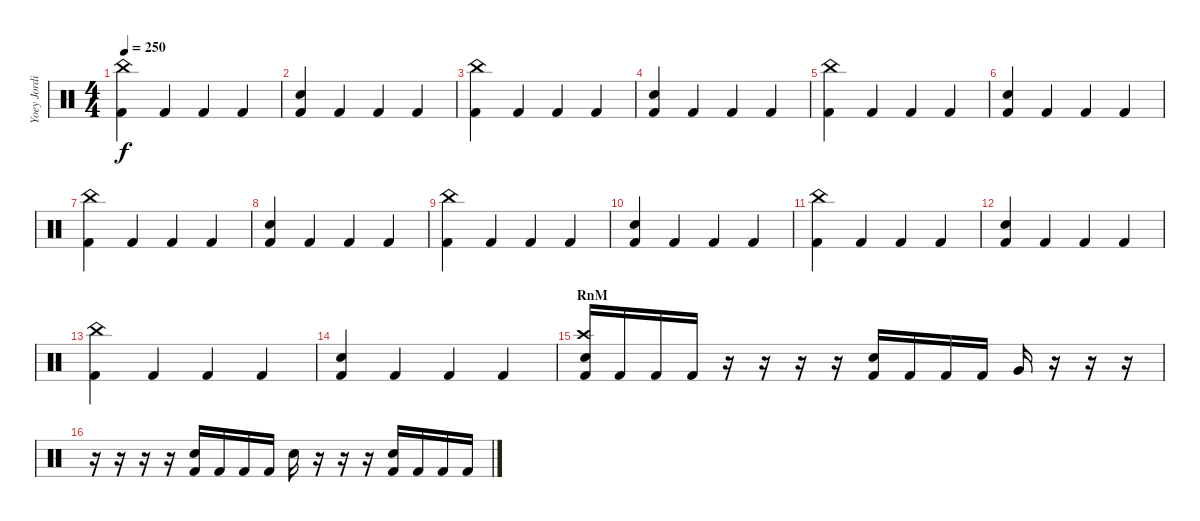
\track ("Yoey Jordison" "Yoey Jordi") {instrument percussion}
\staff {score}
\articulation defaults
\ts (4 4)
\tempo 250
\clef neutral
\ks c
("Kick (hit) 2" "China (hit)").4{dy f} "Kick (hit) 2".4 "Kick (hit) 2".4 "Kick (hit) 2".4 |
("Kick (hit) 2" "Snare (hit) 2").4 "Kick (hit) 2".4 "Kick (hit) 2".4 "Kick (hit) 2".4 |
("Kick (hit) 2" "China (hit)").4 "Kick (hit) 2".4 "Kick (hit) 2".4 "Kick (hit) 2".4 |
("Kick (hit) 2" "Snare (hit) 2").4 "Kick (hit) 2".4 "Kick (hit) 2".4 "Kick (hit) 2".4 |
("Kick (hit) 2" "China (hit)").4 "Kick (hit) 2".4 "Kick (hit) 2".4 "Kick (hit) 2".4 |
("Kick (hit) 2" "Snare (hit) 2").4 "Kick (hit) 2".4 "Kick (hit) 2".4 "Kick (hit) 2".4 |
\section ("" "")
("Kick (hit) 2" "China (hit)").4 "Kick (hit) 2".4 "Kick (hit) 2".4 "Kick (hit) 2".4 |
("Kick (hit) 2" "Snare (hit) 2").4 "Kick (hit) 2".4 "Kick (hit) 2".4 "Kick (hit) 2".4 |
("Kick (hit) 2" "China (hit)").4 "Kick (hit) 2".4 "Kick (hit) 2".4 "Kick (hit) 2".4 |
("Kick (hit) 2" "Snare (hit) 2").4 "Kick (hit) 2".4 "Kick (hit) 2".4 "Kick (hit) 2".4 |
("Kick (hit) 2" "China (hit)").4 "Kick (hit) 2".4 "Kick (hit) 2".4 "Kick (hit) 2".4 |
("Kick (hit) 2" "Snare (hit) 2").4 "Kick (hit) 2".4 "Kick (hit) 2".4 "Kick (hit) 2".4 |
("Kick (hit) 2" "China (hit)").4 "Kick (hit) 2".4 "Kick (hit) 2".4 "Kick (hit) 2".4 |
("Kick (hit) 2" "Snare (hit) 2").4 "Kick (hit) 2".4 "Kick (hit) 2".4 "Kick (hit) 2".4 |
\section ("" "RnM")
("Crash high (hit)" "Kick (hit) 2" "Electric Snare (hit)").16{volume 11} "Kick (hit) 2".16 "Kick (hit) 2".16 "Kick (hit) 2".16 r.16 r.16 r.16 r.16 ("Kick (hit) 2" "Snare (hit) 2").16 "Kick (hit) 2".16 "Kick (hit) 2".16 "Kick (hit) 2".16 "Very Low Tom (hit)".16 r.16 r.16 r.16 |
r.16 r.16 r.16 r.16 ("Kick (hit) 2" "Snare (hit) 2").16 "Kick (hit) 2".16 "Kick (hit) 2".16 "Kick (hit) 2".16 "Snare (hit) 2".16 r.16 r.16 r.16 ("Kick (hit) 2" "Snare (hit) 2").16 "Kick (hit) 2".16 "Kick (hit) 2".16 "Kick (hit) 2".16
